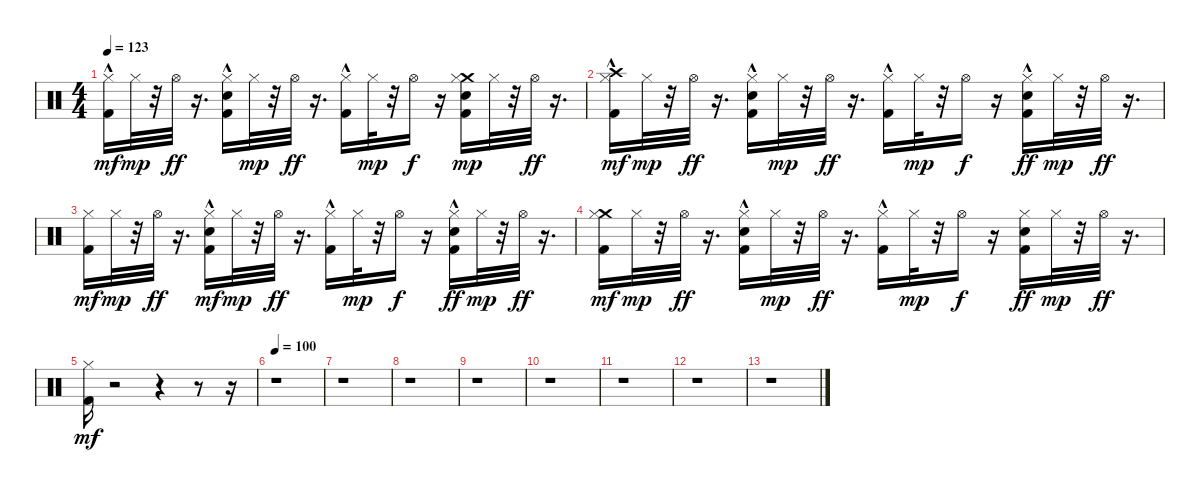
\track "" {instrument percussion}
\staff {score}
\articulation defaults
\ts (4 4)
\tempo 123
\clef neutral
\ks c
("Kick (hit) 2"{hac} "Hi-Hat (closed)").16{dy mf} "Hi-Hat (closed)".32{dy mp} r.32 "Hi-Hat (open)".32{dy ff} r.16{d} ("Kick (hit) 2"{hac} "Hi-Hat (closed)" "Snare (hit) 2").16 "Hi-Hat (closed)".32{dy mp} r.32 "Hi-Hat (open)".32{dy ff} r.16{d} ("Kick (hit) 2"{hac} "Hi-Hat (closed)").16 "Hi-Hat (closed)".32{dy mp} r.32 "Hi-Hat (open)".16{dy f} r.16 ("Snare (hit) 2" "Kick (hit) 2" "Crash medium (hit)" "Hi-Hat (closed)").16{dy mp} "Hi-Hat (closed)".32 r.32 "Hi-Hat (open)".32{dy ff} r.16{d} |
("Kick (hit) 2"{hac} "Crash high (hit)" "Hi-Hat (closed)").16{dy mf} "Hi-Hat (closed)".32{dy mp} r.32 "Hi-Hat (open)".32{dy ff} r.16{d} ("Kick (hit) 2"{hac} "Hi-Hat (closed)" "Snare (hit) 2").16 "Hi-Hat (closed)".32{dy mp} r.32 "Hi-Hat (open)".32{dy ff} r.16{d} ("Kick (hit) 2"{hac} "Hi-Hat (closed)").16 "Hi-Hat (closed)".32{dy mp} r.32 "Hi-Hat (open)".16{dy f} r.16 ("Snare (hit) 2"{hac} "Kick (hit) 2" "Hi-Hat (closed)").16{dy ff} "Hi-Hat (closed)".32{dy mp} r.32 "Hi-Hat (open)".32{dy ff} r.16{d} |
("Kick (hit) 2" "Hi-Hat (closed)").16{dy mf} "Hi-Hat (closed)".32{dy mp} r.32 "Hi-Hat (open)".32{dy ff} r.16{d} ("Kick (hit) 2"{hac} "Snare (hit) 2"{hac} "Hi-Hat (closed)").16{dy mf} "Hi-Hat (closed)".32{dy mp} r.32 "Hi-Hat (open)".32{dy ff} r.16{d} ("Kick (hit) 2"{hac} "Hi-Hat (closed)").16 "Hi-Hat (closed)".32{dy mp} r.32 "Hi-Hat (open)".16{dy f} r.16 ("Snare (hit) 2"{hac} "Kick (hit) 2" "Hi-Hat (closed)").16{dy ff} "Hi-Hat (closed)".32{dy mp} r.32 "Hi-Hat (open)".32{dy ff} r.16{d} |
("Kick (hit) 2" "Crash medium (hit)" "Hi-Hat (closed)").16{dy mf} "Hi-Hat (closed)".32{dy mp} r.32 "Hi-Hat (open)".32{dy ff} r.16{d} ("Kick (hit) 2"{hac} "Hi-Hat (closed)" "Snare (hit) 2"{hac}).16 "Hi-Hat (closed)".32{dy mp} r.32 "Hi-Hat (open)".32{dy ff} r.16{d} ("Kick (hit) 2"{hac} "Hi-Hat (closed)").16 "Hi-Hat (closed)".32{dy mp} r.32 "Hi-Hat (open)".16{dy f} r.16 ("Snare (hit) 2" "Kick (hit) 2" "Hi-Hat (closed)").16{dy ff} "Hi-Hat (closed)".32{dy mp} r.32 "Hi-Hat (open)".32{dy ff} r.16{d} |
("Kick (hit) 2" "Hi-Hat (closed)").16{dy mf} r.2 r.4 r.8 r.16 |
\tempo 100
r.1 |
r.1 |
r.1 |
r.1 |
r.1 |
r.1 |
r.1 |
r.1
